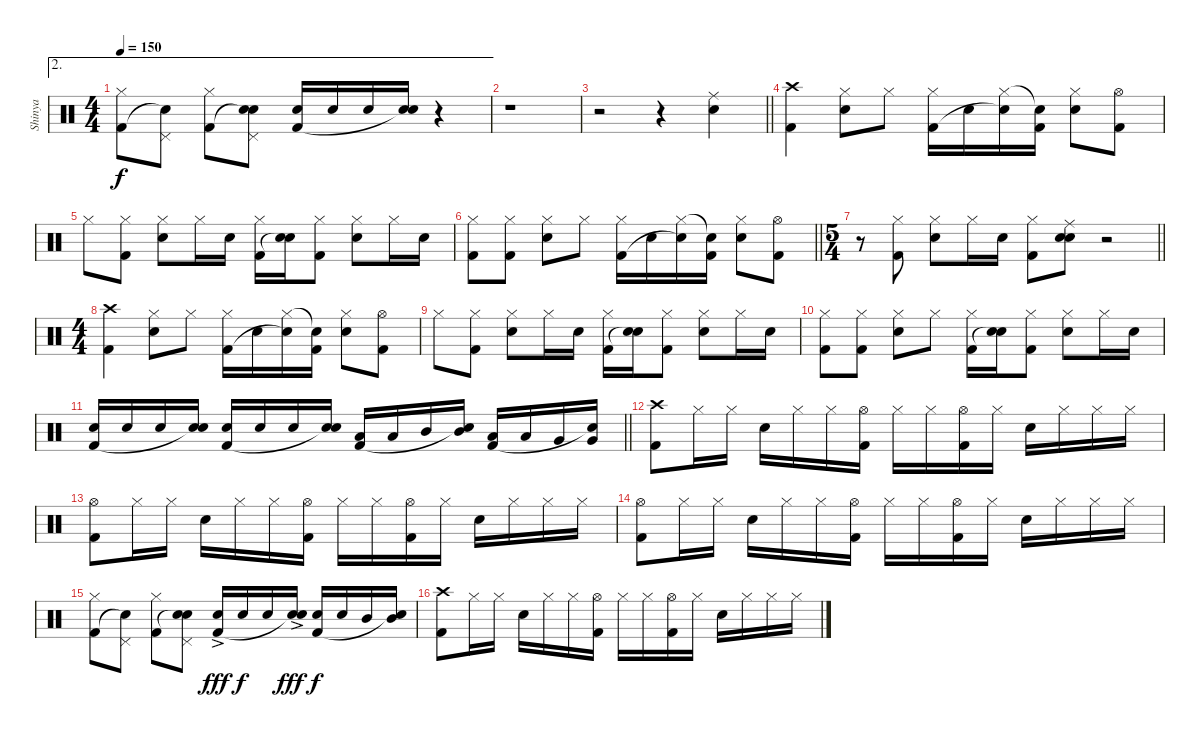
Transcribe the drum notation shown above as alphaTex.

\track ("Shinya" "Shinya") {instrument percussion}
\staff {score}
\articulation defaults
\ae 2
\ts (4 4)
\tempo 150
\clef neutral
\ks c
("Hi-Hat (closed)" "Kick (hit) 2").8{dy f} ("Pedal Hi-Hat (hit)" "Snare (hit)"{t}).8 ("Hi-Hat (closed)" "Kick (hit) 2").8 ("Pedal Hi-Hat (hit)" "Electric Snare (hit)"{t} "Electric Snare (hit)").8 ("Electric Snare (hit)" "Kick (hit) 2").16 "Electric Snare (hit)".16 "Electric Snare (hit)".16 ("Electric Snare (hit)" "Snare (hit)"{t}).16 r.4 |
r.1 |
\barLineRight lightlight
r.2 r.4 ("Ride (middle)" "Electric Snare (hit)").4 |
("Crash high (hit)" "Kick (hit) 2").4 ("Hi-Hat (closed)" "Electric Snare (hit)").8 "Hi-Hat (closed)".8 ("Hi-Hat (closed)" "Kick (hit) 2").16 "Electric Snare (hit)".16 ("Hi-Hat (closed)" "Snare (hit)"{t}).16 ("Snare (hit)"{t} "Kick (hit) 2").16 ("Hi-Hat (closed)" "Electric Snare (hit)").8 ("Hi-Hat (open)" "Kick (hit) 2").8 |
"Hi-Hat (closed)".8 ("Hi-Hat (closed)" "Kick (hit) 2").8 ("Hi-Hat (closed)" "Electric Snare (hit)").8 "Hi-Hat (closed)".16 "Electric Snare (hit)".16 ("Hi-Hat (closed)" "Kick (hit) 2").16 ("Electric Snare (hit)" "Snare (hit)"{t}).16 ("Hi-Hat (closed)" "Kick (hit) 2").8 ("Hi-Hat (closed)" "Electric Snare (hit)").8 "Hi-Hat (closed)".16 "Electric Snare (hit)".16 |
\barLineRight lightlight
("Hi-Hat (closed)" "Kick (hit) 2").8 ("Hi-Hat (closed)" "Kick (hit) 2").8 ("Hi-Hat (closed)" "Electric Snare (hit)").8 "Hi-Hat (closed)".8 ("Hi-Hat (closed)" "Kick (hit) 2").16 "Electric Snare (hit)".16 ("Hi-Hat (closed)" "Snare (hit)"{t}).16 ("Snare (hit)"{t} "Kick (hit) 2").16 ("Hi-Hat (closed)" "Electric Snare (hit)").8 ("Hi-Hat (open)" "Kick (hit) 2").8 |
\ts (5 4)
\barLineRight lightlight
r.8 ("Hi-Hat (closed)" "Kick (hit) 2").8 ("Hi-Hat (closed)" "Electric Snare (hit)").8 "Hi-Hat (closed)".16 "Electric Snare (hit)".16 ("Hi-Hat (closed)" "Kick (hit) 2").8 ("Ride (middle)" "Electric Snare (hit)" "Snare (hit)").8 r.2 |
\ts (4 4)
("Crash high (hit)" "Kick (hit) 2").4 ("Hi-Hat (closed)" "Electric Snare (hit)").8 "Hi-Hat (closed)".8 ("Hi-Hat (closed)" "Kick (hit) 2").16 "Electric Snare (hit)".16 ("Hi-Hat (closed)" "Snare (hit)"{t}).16 ("Snare (hit)"{t} "Kick (hit) 2").16 ("Hi-Hat (closed)" "Electric Snare (hit)").8 ("Hi-Hat (open)" "Kick (hit) 2").8 |
"Hi-Hat (closed)".8 ("Hi-Hat (closed)" "Kick (hit) 2").8 ("Hi-Hat (closed)" "Electric Snare (hit)").8 "Hi-Hat (closed)".16 "Electric Snare (hit)".16 ("Hi-Hat (closed)" "Kick (hit) 2").16 ("Electric Snare (hit)" "Snare (hit)"{t}).16 ("Hi-Hat (closed)" "Kick (hit) 2").8 ("Hi-Hat (closed)" "Electric Snare (hit)").8 "Hi-Hat (closed)".16 "Electric Snare (hit)".16 |
("Hi-Hat (closed)" "Kick (hit) 2").8 ("Hi-Hat (closed)" "Kick (hit) 2").8 ("Hi-Hat (closed)" "Electric Snare (hit)").8 "Hi-Hat (closed)".8 ("Hi-Hat (closed)" "Kick (hit) 2").16 ("Electric Snare (hit)" "Snare (hit)"{t}).16 ("Hi-Hat (closed)" "Kick (hit) 2").8 ("Hi-Hat (closed)" "Electric Snare (hit)").8 "Hi-Hat (closed)".16 "Electric Snare (hit)".16 |
\barLineRight lightlight
("Electric Snare (hit)" "Kick (hit) 2").16 "Electric Snare (hit)".16 "Electric Snare (hit)".16 ("Electric Snare (hit)" "Snare (hit)"{t}).16 ("Electric Snare (hit)" "Kick (hit) 2").16 "Electric Snare (hit)".16 "Electric Snare (hit)".16 ("Electric Snare (hit)" "Snare (hit)"{t}).16 ("Low Tom (hit)" "Kick (hit) 2").16 "Low Tom (hit)".16 "Mid Tom (hit)".16 ("Mid Tom (hit)" "Snare (hit)"{t}).16 ("Low Tom (hit)" "Kick (hit) 2").16 "Low Tom (hit)".16 "Very Low Tom (hit)".16 ("Very Low Tom (hit)" "Snare (hit)"{t}).16 |
("Crash high (hit)" "Kick (hit) 2").8 "Hi-Hat (closed)".16 "Hi-Hat (closed)".16 "Electric Snare (hit)".16 "Hi-Hat (closed)".16 "Hi-Hat (closed)".16 ("Hi-Hat (open)" "Kick (hit) 2").16 "Hi-Hat (closed)".16 "Hi-Hat (closed)".16 ("Hi-Hat (open)" "Kick (hit) 2").16 "Hi-Hat (closed)".16 "Electric Snare (hit)".16 "Hi-Hat (closed)".16 "Hi-Hat (closed)".16 "Hi-Hat (closed)".16 |
("Hi-Hat (open)" "Kick (hit) 2").8 "Hi-Hat (closed)".16 "Hi-Hat (closed)".16 "Electric Snare (hit)".16 "Hi-Hat (closed)".16 "Hi-Hat (closed)".16 ("Hi-Hat (open)" "Kick (hit) 2").16 "Hi-Hat (closed)".16 "Hi-Hat (closed)".16 ("Hi-Hat (open)" "Kick (hit) 2").16 "Hi-Hat (closed)".16 "Electric Snare (hit)".16 "Hi-Hat (closed)".16 "Hi-Hat (closed)".16 "Hi-Hat (closed)".16 |
("Hi-Hat (open)" "Kick (hit) 2").8 "Hi-Hat (closed)".16 "Hi-Hat (closed)".16 "Electric Snare (hit)".16 "Hi-Hat (closed)".16 "Hi-Hat (closed)".16 ("Hi-Hat (open)" "Kick (hit) 2").16 "Hi-Hat (closed)".16 "Hi-Hat (closed)".16 ("Hi-Hat (open)" "Kick (hit) 2").16 "Hi-Hat (closed)".16 "Electric Snare (hit)".16 "Hi-Hat (closed)".16 "Hi-Hat (closed)".16 "Hi-Hat (closed)".16 |
("Hi-Hat (closed)" "Kick (hit) 2").8 ("Pedal Hi-Hat (hit)" "Snare (hit)"{t}).8 ("Hi-Hat (closed)" "Kick (hit) 2").8 ("Pedal Hi-Hat (hit)" "Snare (hit)"{t} "Electric Snare (hit)").8 ("Electric Snare (hit)"{ac} "Kick (hit) 2").16{dy fff} "Electric Snare (hit)".16{dy f} "Electric Snare (hit)".16 ("Electric Snare (hit)"{ac} "Snare (hit)"{t}).16{dy fff} ("Electric Snare (hit)" "Kick (hit) 2").16{dy f} "Electric Snare (hit)".16 "Mid Tom (hit)".16 ("Mid Tom (hit)" "Snare (hit)"{t}).16 |
("Crash high (hit)" "Kick (hit) 2").8 "Hi-Hat (closed)".16 "Hi-Hat (closed)".16 "Electric Snare (hit)".16 "Hi-Hat (closed)".16 "Hi-Hat (closed)".16 ("Hi-Hat (open)" "Kick (hit) 2").16 "Hi-Hat (closed)".16 "Hi-Hat (closed)".16 ("Hi-Hat (open)" "Kick (hit) 2").16 "Hi-Hat (closed)".16 "Electric Snare (hit)".16 "Hi-Hat (closed)".16 "Hi-Hat (closed)".16 "Hi-Hat (closed)".16
